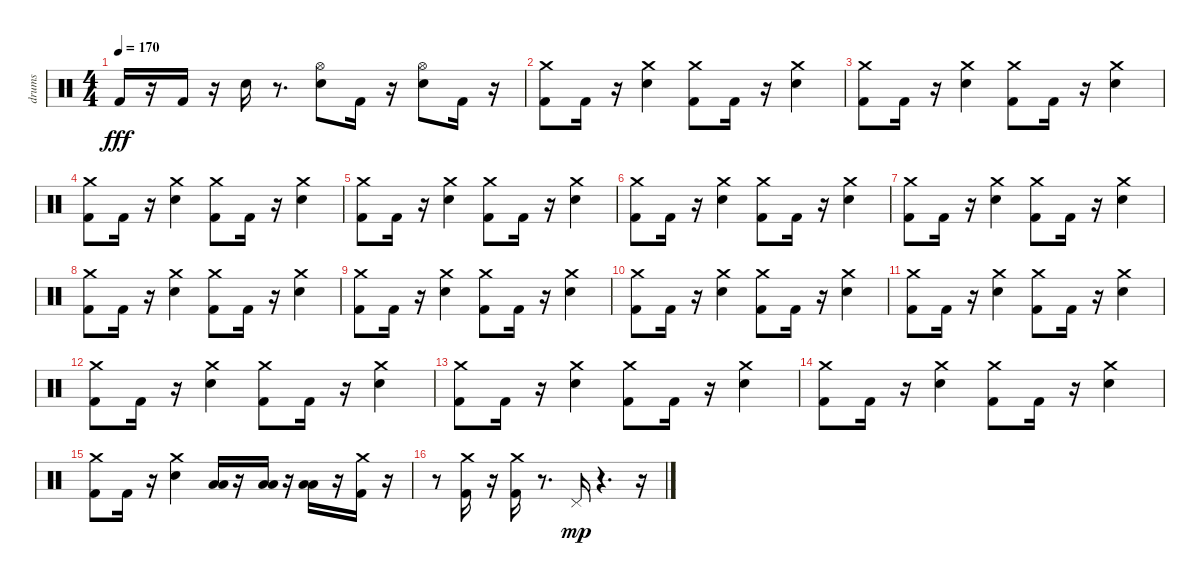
\track ("drums" "drums") {instrument percussion}
\staff {score}
\articulation defaults
\ts (4 4)
\tempo 170
\clef neutral
\ks c "Kick (hit) 2".16{dy fff}
r.16 "Kick (hit) 2".16 r.16 "Electric Snare (hit)".16 r.8{d} ("Electric Snare (hit)" "Hi-Hat (open)").8 "Kick (hit) 2".16 r.16 ("Electric Snare (hit)" "Hi-Hat (open)").8 "Kick (hit) 2".16 r.16 |
("Kick (hit) 2" "Crash medium (hit)").8 "Kick (hit) 2".16 r.16 ("Electric Snare (hit)" "Crash medium (hit)").4 ("Kick (hit) 2" "Crash medium (hit)").8 "Kick (hit) 2".16 r.16 ("Electric Snare (hit)" "Crash medium (hit)").4 |
("Kick (hit) 2" "Crash medium (hit)").8 "Kick (hit) 2".16 r.16 ("Electric Snare (hit)" "Crash medium (hit)").4 ("Kick (hit) 2" "Crash medium (hit)").8 "Kick (hit) 2".16 r.16 ("Electric Snare (hit)" "Crash medium (hit)").4 |
("Kick (hit) 2" "Crash medium (hit)").8 "Kick (hit) 2".16 r.16 ("Electric Snare (hit)" "Crash medium (hit)").4 ("Kick (hit) 2" "Crash medium (hit)").8 "Kick (hit) 2".16 r.16 ("Electric Snare (hit)" "Crash medium (hit)").4 |
("Kick (hit) 2" "Crash medium (hit)").8 "Kick (hit) 2".16 r.16 ("Electric Snare (hit)" "Crash medium (hit)").4 ("Kick (hit) 2" "Crash medium (hit)").8 "Kick (hit) 2".16 r.16 ("Electric Snare (hit)" "Crash medium (hit)").4 |
("Kick (hit) 2" "Crash medium (hit)").8 "Kick (hit) 2".16 r.16 ("Electric Snare (hit)" "Crash medium (hit)").4 ("Kick (hit) 2" "Crash medium (hit)").8 "Kick (hit) 2".16 r.16 ("Electric Snare (hit)" "Crash medium (hit)").4 |
("Kick (hit) 2" "Crash medium (hit)").8 "Kick (hit) 2".16 r.16 ("Electric Snare (hit)" "Crash medium (hit)").4 ("Kick (hit) 2" "Crash medium (hit)").8 "Kick (hit) 2".16 r.16 ("Electric Snare (hit)" "Crash medium (hit)").4 |
("Kick (hit) 2" "Crash medium (hit)").8 "Kick (hit) 2".16 r.16 ("Electric Snare (hit)" "Crash medium (hit)").4 ("Kick (hit) 2" "Crash medium (hit)").8 "Kick (hit) 2".16 r.16 ("Electric Snare (hit)" "Crash medium (hit)").4 |
("Kick (hit) 2" "Crash medium (hit)").8 "Kick (hit) 2".16 r.16 ("Electric Snare (hit)" "Crash medium (hit)").4 ("Kick (hit) 2" "Crash medium (hit)").8 "Kick (hit) 2".16 r.16 ("Electric Snare (hit)" "Crash medium (hit)").4 |
("Kick (hit) 2" "Crash medium (hit)").8 "Kick (hit) 2".16 r.16 ("Electric Snare (hit)" "Crash medium (hit)").4 ("Kick (hit) 2" "Crash medium (hit)").8 "Kick (hit) 2".16 r.16 ("Electric Snare (hit)" "Crash medium (hit)").4 |
("Kick (hit) 2" "Crash medium (hit)").8 "Kick (hit) 2".16 r.16 ("Electric Snare (hit)" "Crash medium (hit)").4 ("Kick (hit) 2" "Crash medium (hit)").8 "Kick (hit) 2".16 r.16 ("Electric Snare (hit)" "Crash medium (hit)").4 |
("Kick (hit) 2" "Crash medium (hit)").8 "Kick (hit) 2".16 r.16 ("Electric Snare (hit)" "Crash medium (hit)").4 ("Kick (hit) 2" "Crash medium (hit)").8 "Kick (hit) 2".16 r.16 ("Electric Snare (hit)" "Crash medium (hit)").4 |
("Kick (hit) 2" "Crash medium (hit)").8 "Kick (hit) 2".16 r.16 ("Electric Snare (hit)" "Crash medium (hit)").4 ("Kick (hit) 2" "Crash medium (hit)").8 "Kick (hit) 2".16 r.16 ("Electric Snare (hit)" "Crash medium (hit)").4 |
("Kick (hit) 2" "Crash medium (hit)").8 "Kick (hit) 2".16 r.16 ("Electric Snare (hit)" "Crash medium (hit)").4 ("Kick (hit) 2" "Crash medium (hit)").8 "Kick (hit) 2".16 r.16 ("Electric Snare (hit)" "Crash medium (hit)").4 |
("Kick (hit) 2" "Crash medium (hit)").8 "Kick (hit) 2".16 r.16 ("Electric Snare (hit)" "Crash medium (hit)").4 ("Low Tom (hit)" "Low Floor Tom (hit)").16 r.16 ("Low Tom (hit)" "Low Floor Tom (hit)").16 r.16 ("Low Floor Tom (hit)" "Low Tom (hit)").16 r.16 ("Kick (hit) 2" "Crash medium (hit)").16 r.16 |
r.8 ("Crash medium (hit)" "Kick (hit) 2").16 r.16 ("Kick (hit) 2" "Crash medium (hit)").16 r.8{d} "Pedal Hi-Hat (hit)".16{dy mp} r.4{d} r.16
